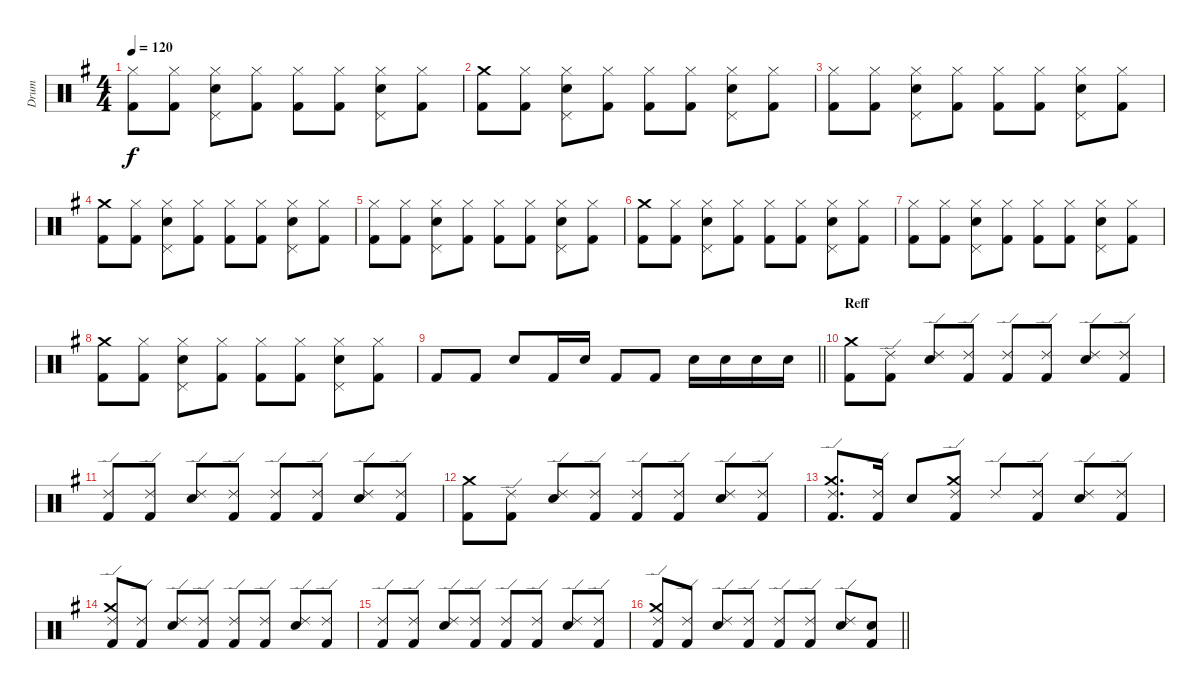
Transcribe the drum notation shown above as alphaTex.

\track ("Drum" "Drum") {instrument percussion}
\staff {score}
\articulation defaults
\ts (4 4)
\tempo 120
\clef neutral
\ks g
("Hi-Hat (closed)" "Kick (hit) 2").8{dy f} ("Hi-Hat (closed)" "Kick (hit) 2").8 ("Pedal Hi-Hat (hit)" "Hi-Hat (closed)" "Electric Snare (hit)").8 ("Hi-Hat (closed)" "Kick (hit) 2").8 ("Hi-Hat (closed)" "Kick (hit) 2").8 ("Hi-Hat (closed)" "Kick (hit) 2").8 ("Pedal Hi-Hat (hit)" "Hi-Hat (closed)" "Electric Snare (hit)").8 ("Hi-Hat (closed)" "Kick (hit) 2").8 |
("Crash medium (hit)" "Kick (hit) 2").8 ("Hi-Hat (closed)" "Kick (hit) 2").8 ("Pedal Hi-Hat (hit)" "Hi-Hat (closed)" "Electric Snare (hit)").8 ("Hi-Hat (closed)" "Kick (hit) 2").8 ("Hi-Hat (closed)" "Kick (hit) 2").8 ("Hi-Hat (closed)" "Kick (hit) 2").8 ("Pedal Hi-Hat (hit)" "Hi-Hat (closed)" "Electric Snare (hit)").8 ("Hi-Hat (closed)" "Kick (hit) 2").8 |
("Hi-Hat (closed)" "Kick (hit) 2").8 ("Hi-Hat (closed)" "Kick (hit) 2").8 ("Pedal Hi-Hat (hit)" "Hi-Hat (closed)" "Electric Snare (hit)").8 ("Hi-Hat (closed)" "Kick (hit) 2").8 ("Hi-Hat (closed)" "Kick (hit) 2").8 ("Hi-Hat (closed)" "Kick (hit) 2").8 ("Pedal Hi-Hat (hit)" "Hi-Hat (closed)" "Electric Snare (hit)").8 ("Hi-Hat (closed)" "Kick (hit) 2").8 |
("Crash medium (hit)" "Kick (hit) 2").8 ("Hi-Hat (closed)" "Kick (hit) 2").8 ("Pedal Hi-Hat (hit)" "Hi-Hat (closed)" "Electric Snare (hit)").8 ("Hi-Hat (closed)" "Kick (hit) 2").8 ("Hi-Hat (closed)" "Kick (hit) 2").8 ("Hi-Hat (closed)" "Kick (hit) 2").8 ("Pedal Hi-Hat (hit)" "Hi-Hat (closed)" "Electric Snare (hit)").8 ("Hi-Hat (closed)" "Kick (hit) 2").8 |
("Hi-Hat (closed)" "Kick (hit) 2").8 ("Hi-Hat (closed)" "Kick (hit) 2").8 ("Pedal Hi-Hat (hit)" "Hi-Hat (closed)" "Electric Snare (hit)").8 ("Hi-Hat (closed)" "Kick (hit) 2").8 ("Hi-Hat (closed)" "Kick (hit) 2").8 ("Hi-Hat (closed)" "Kick (hit) 2").8 ("Pedal Hi-Hat (hit)" "Hi-Hat (closed)" "Electric Snare (hit)").8 ("Hi-Hat (closed)" "Kick (hit) 2").8 |
("Crash medium (hit)" "Kick (hit) 2").8 ("Hi-Hat (closed)" "Kick (hit) 2").8 ("Pedal Hi-Hat (hit)" "Hi-Hat (closed)" "Electric Snare (hit)").8 ("Hi-Hat (closed)" "Kick (hit) 2").8 ("Hi-Hat (closed)" "Kick (hit) 2").8 ("Hi-Hat (closed)" "Kick (hit) 2").8 ("Pedal Hi-Hat (hit)" "Hi-Hat (closed)" "Electric Snare (hit)").8 ("Hi-Hat (closed)" "Kick (hit) 2").8 |
("Hi-Hat (closed)" "Kick (hit) 2").8 ("Hi-Hat (closed)" "Kick (hit) 2").8 ("Pedal Hi-Hat (hit)" "Hi-Hat (closed)" "Electric Snare (hit)").8 ("Hi-Hat (closed)" "Kick (hit) 2").8 ("Hi-Hat (closed)" "Kick (hit) 2").8 ("Hi-Hat (closed)" "Kick (hit) 2").8 ("Pedal Hi-Hat (hit)" "Hi-Hat (closed)" "Electric Snare (hit)").8 ("Hi-Hat (closed)" "Kick (hit) 2").8 |
("Crash medium (hit)" "Kick (hit) 2").8 ("Hi-Hat (closed)" "Kick (hit) 2").8 ("Pedal Hi-Hat (hit)" "Hi-Hat (closed)" "Electric Snare (hit)").8 ("Hi-Hat (closed)" "Kick (hit) 2").8 ("Hi-Hat (closed)" "Kick (hit) 2").8 ("Hi-Hat (closed)" "Kick (hit) 2").8 ("Pedal Hi-Hat (hit)" "Hi-Hat (closed)" "Electric Snare (hit)").8 ("Hi-Hat (closed)" "Kick (hit) 2").8 |
\barLineRight lightlight "Kick (hit) 2".8 "Kick (hit) 2".8 "Electric Snare (hit)".8 "Kick (hit) 2".16 "Electric Snare (hit)".16 "Kick (hit) 2".8 "Kick (hit) 2".8 "Electric Snare (hit)".16 "Electric Snare (hit)".16 "Electric Snare (hit)".16 "Electric Snare (hit)".16
|
\section ("" "Reff")
("Crash medium (hit)" "Kick (hit) 2").8 ("Ride (edge) 2" "Kick (hit) 2").8 ("Ride (edge) 2" "Electric Snare (hit)").8 ("Ride (edge) 2" "Kick (hit) 2").8 ("Ride (edge) 2" "Kick (hit) 2").8 ("Ride (edge) 2" "Kick (hit) 2").8 ("Ride (edge) 2" "Electric Snare (hit)").8 ("Ride (edge) 2" "Kick (hit) 2").8 |
("Ride (edge) 2" "Kick (hit) 2").8 ("Ride (edge) 2" "Kick (hit) 2").8 ("Ride (edge) 2" "Electric Snare (hit)").8 ("Ride (edge) 2" "Kick (hit) 2").8 ("Ride (edge) 2" "Kick (hit) 2").8 ("Ride (edge) 2" "Kick (hit) 2").8 ("Ride (edge) 2" "Electric Snare (hit)").8 ("Ride (edge) 2" "Kick (hit) 2").8 |
("Crash medium (hit)" "Kick (hit) 2").8 ("Ride (edge) 2" "Kick (hit) 2").8 ("Ride (edge) 2" "Electric Snare (hit)").8 ("Ride (edge) 2" "Kick (hit) 2").8 ("Ride (edge) 2" "Kick (hit) 2").8 ("Ride (edge) 2" "Kick (hit) 2").8 ("Ride (edge) 2" "Electric Snare (hit)").8 ("Ride (edge) 2" "Kick (hit) 2").8 |
("Crash medium (hit)" "Ride (edge) 2" "Kick (hit) 2").8{d} ("Ride (edge) 2" "Kick (hit) 2").16 "Electric Snare (hit)".8 ("Crash medium (hit)" "Ride (edge) 2" "Kick (hit) 2").8 "Ride (edge) 2".8 ("Ride (edge) 2" "Kick (hit) 2").8 ("Ride (edge) 2" "Electric Snare (hit)").8 ("Ride (edge) 2" "Kick (hit) 2").8 |
("Crash medium (hit)" "Ride (edge) 2" "Kick (hit) 2").8 ("Ride (edge) 2" "Kick (hit) 2").8 ("Ride (edge) 2" "Electric Snare (hit)").8 ("Ride (edge) 2" "Kick (hit) 2").8 ("Ride (edge) 2" "Kick (hit) 2").8 ("Ride (edge) 2" "Kick (hit) 2").8 ("Ride (edge) 2" "Electric Snare (hit)").8 ("Ride (edge) 2" "Kick (hit) 2").8 |
("Ride (edge) 2" "Kick (hit) 2").8 ("Ride (edge) 2" "Kick (hit) 2").8 ("Ride (edge) 2" "Electric Snare (hit)").8 ("Ride (edge) 2" "Kick (hit) 2").8 ("Ride (edge) 2" "Kick (hit) 2").8 ("Ride (edge) 2" "Kick (hit) 2").8 ("Ride (edge) 2" "Electric Snare (hit)").8 ("Ride (edge) 2" "Kick (hit) 2").8 |
\barLineRight lightlight
("Crash medium (hit)" "Ride (edge) 2" "Kick (hit) 2").8 ("Ride (edge) 2" "Kick (hit) 2").8 ("Ride (edge) 2" "Electric Snare (hit)").8 ("Ride (edge) 2" "Kick (hit) 2").8 ("Ride (edge) 2" "Kick (hit) 2").8 ("Ride (edge) 2" "Kick (hit) 2").8 ("Ride (edge) 2" "Electric Snare (hit)").8 ("Snare (hit)" "Kick (hit) 2").8
